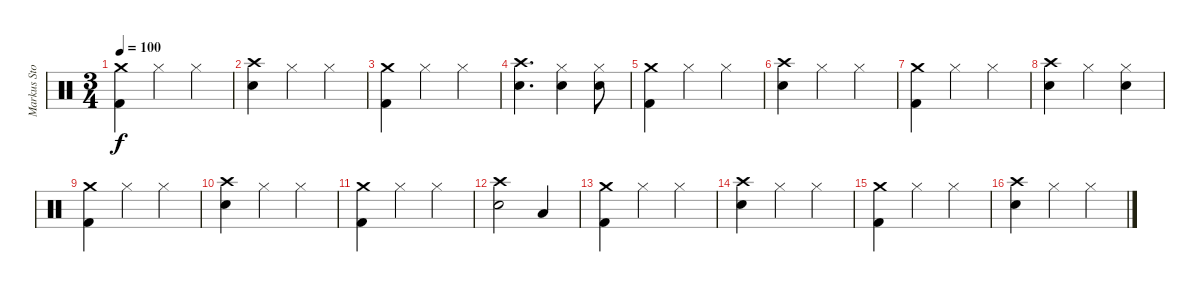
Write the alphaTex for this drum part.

\track ("Markus Stock" "Markus Sto") {instrument percussion}
\staff {score}
\articulation defaults
\ts (3 4)
\tempo 100
\clef neutral
\ks c
("Crash medium (hit)" "Kick (hit) 2").4{dy f} "Hi-Hat (closed)".4 "Hi-Hat (closed)".4 |
("Crash high (hit)" "Snare (hit) 2").4 "Hi-Hat (closed)".4 "Hi-Hat (closed)".4 |
("Crash medium (hit)" "Kick (hit) 2").4 "Hi-Hat (closed)".4 "Hi-Hat (closed)".4 |
("Crash high (hit)" "Snare (hit) 2").4{d} ("Hi-Hat (closed)" "Snare (hit) 2").4 ("Hi-Hat (closed)" "Snare (hit) 2").8 |
("Crash medium (hit)" "Kick (hit) 2").4 "Hi-Hat (closed)".4 "Hi-Hat (closed)".4 |
("Crash high (hit)" "Snare (hit) 2").4 "Hi-Hat (closed)".4 "Hi-Hat (closed)".4 |
("Crash medium (hit)" "Kick (hit) 2").4 "Hi-Hat (closed)".4 "Hi-Hat (closed)".4 |
("Crash high (hit)" "Snare (hit) 2").4 "Hi-Hat (closed)".4 ("Hi-Hat (closed)" "Snare (hit) 2").4 |
("Crash medium (hit)" "Kick (hit) 2").4 "Hi-Hat (closed)".4 "Hi-Hat (closed)".4 |
("Crash high (hit)" "Snare (hit) 2").4 "Hi-Hat (closed)".4 "Hi-Hat (closed)".4 |
("Crash medium (hit)" "Kick (hit) 2").4 "Hi-Hat (closed)".4 "Hi-Hat (closed)".4 |
("Crash high (hit)" "Snare (hit) 2").2 "Low Tom (hit)".4 |
("Crash medium (hit)" "Kick (hit) 2").4 "Hi-Hat (closed)".4 "Hi-Hat (closed)".4 |
("Crash high (hit)" "Snare (hit) 2").4 "Hi-Hat (closed)".4 "Hi-Hat (closed)".4 |
("Crash medium (hit)" "Kick (hit) 2").4 "Hi-Hat (closed)".4 "Hi-Hat (closed)".4 |
("Crash high (hit)" "Snare (hit) 2").4 "Hi-Hat (closed)".4 "Hi-Hat (closed)".4
